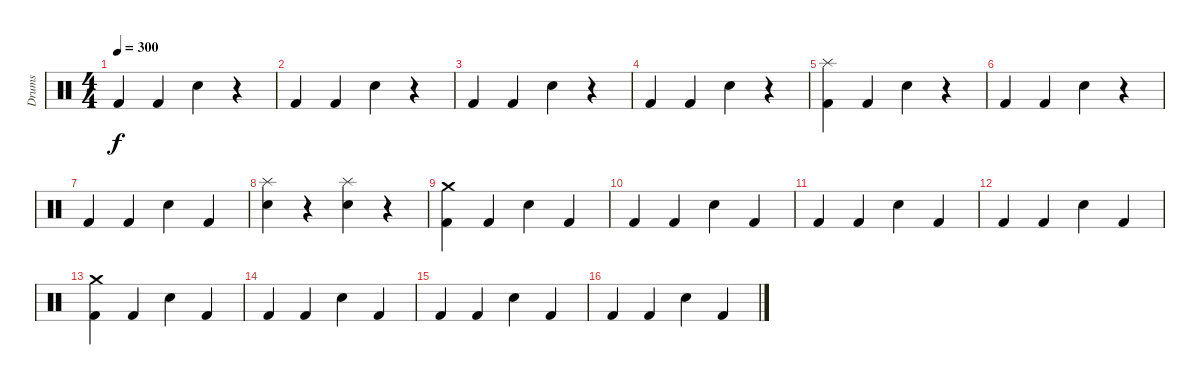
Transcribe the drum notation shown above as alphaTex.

\track ("Drums" "Drums") {instrument percussion}
\staff {score}
\articulation defaults
\ts (4 4)
\tempo 300
\clef neutral
\ks c "Kick (hit) 2".4{dy f} "Kick (hit) 2".4 "Snare (hit) 2".4
r.4 |
"Kick (hit) 2".4 "Kick (hit) 2".4 "Snare (hit) 2".4 r.4 |
"Kick (hit) 2".4 "Kick (hit) 2".4 "Snare (hit) 2".4 r.4 |
"Kick (hit) 2".4 "Kick (hit) 2".4 "Snare (hit) 2".4 r.4 |
("Splash (hit)" "Kick (hit) 2").4 "Kick (hit) 2".4 "Snare (hit) 2".4 r.4 |
"Kick (hit) 2".4 "Kick (hit) 2".4 "Snare (hit) 2".4 r.4 |
"Kick (hit) 2".4 "Kick (hit) 2".4 "Snare (hit) 2".4 "Kick (hit) 2".4 |
("Splash (hit)" "Electric Snare (hit)").4 r.4 ("Splash (hit)" "Electric Snare (hit)").4 r.4 |
("Crash medium (hit)" "Kick (hit) 2").4 "Kick (hit) 2".4 "Snare (hit) 2".4 "Kick (hit) 2".4 |
"Kick (hit) 2".4 "Kick (hit) 2".4 "Snare (hit) 2".4 "Kick (hit) 2".4 |
"Kick (hit) 2".4 "Kick (hit) 2".4 "Snare (hit) 2".4 "Kick (hit) 2".4 |
"Kick (hit) 2".4 "Kick (hit) 2".4 "Snare (hit) 2".4 "Kick (hit) 2".4 |
("Crash medium (hit)" "Kick (hit) 2").4 "Kick (hit) 2".4 "Snare (hit) 2".4 "Kick (hit) 2".4 |
"Kick (hit) 2".4 "Kick (hit) 2".4 "Snare (hit) 2".4 "Kick (hit) 2".4 |
"Kick (hit) 2".4 "Kick (hit) 2".4 "Snare (hit) 2".4 "Kick (hit) 2".4 |
"Kick (hit) 2".4 "Kick (hit) 2".4 "Snare (hit) 2".4 "Kick (hit) 2".4
